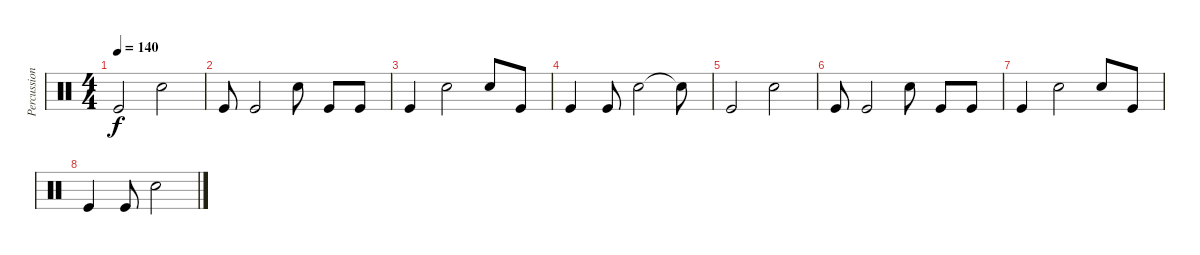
\track ("Percussions" "Percussion") {instrument percussion}
\staff {score}
\articulation defaults
\ts (4 4)
\tempo 140
\clef neutral
\ks c "Kick (hit)".2{dy f} "Electric Snare (hit)".2
|
"Kick (hit)".8 "Kick (hit)".2 "Electric Snare (hit)".8 "Kick (hit)".8 "Kick (hit)".8 |
"Kick (hit)".4 "Electric Snare (hit)".2 "Electric Snare (hit)".8 "Kick (hit)".8 |
"Kick (hit)".4 "Kick (hit)".8 "Electric Snare (hit)".2 "Snare (hit)"{t}.8 |
"Kick (hit)".2 "Electric Snare (hit)".2 |
"Kick (hit)".8 "Kick (hit)".2 "Electric Snare (hit)".8 "Kick (hit)".8 "Kick (hit)".8 |
"Kick (hit)".4 "Electric Snare (hit)".2 "Electric Snare (hit)".8 "Kick (hit)".8 |
"Kick (hit)".4 "Kick (hit)".8 "Electric Snare (hit)".2
